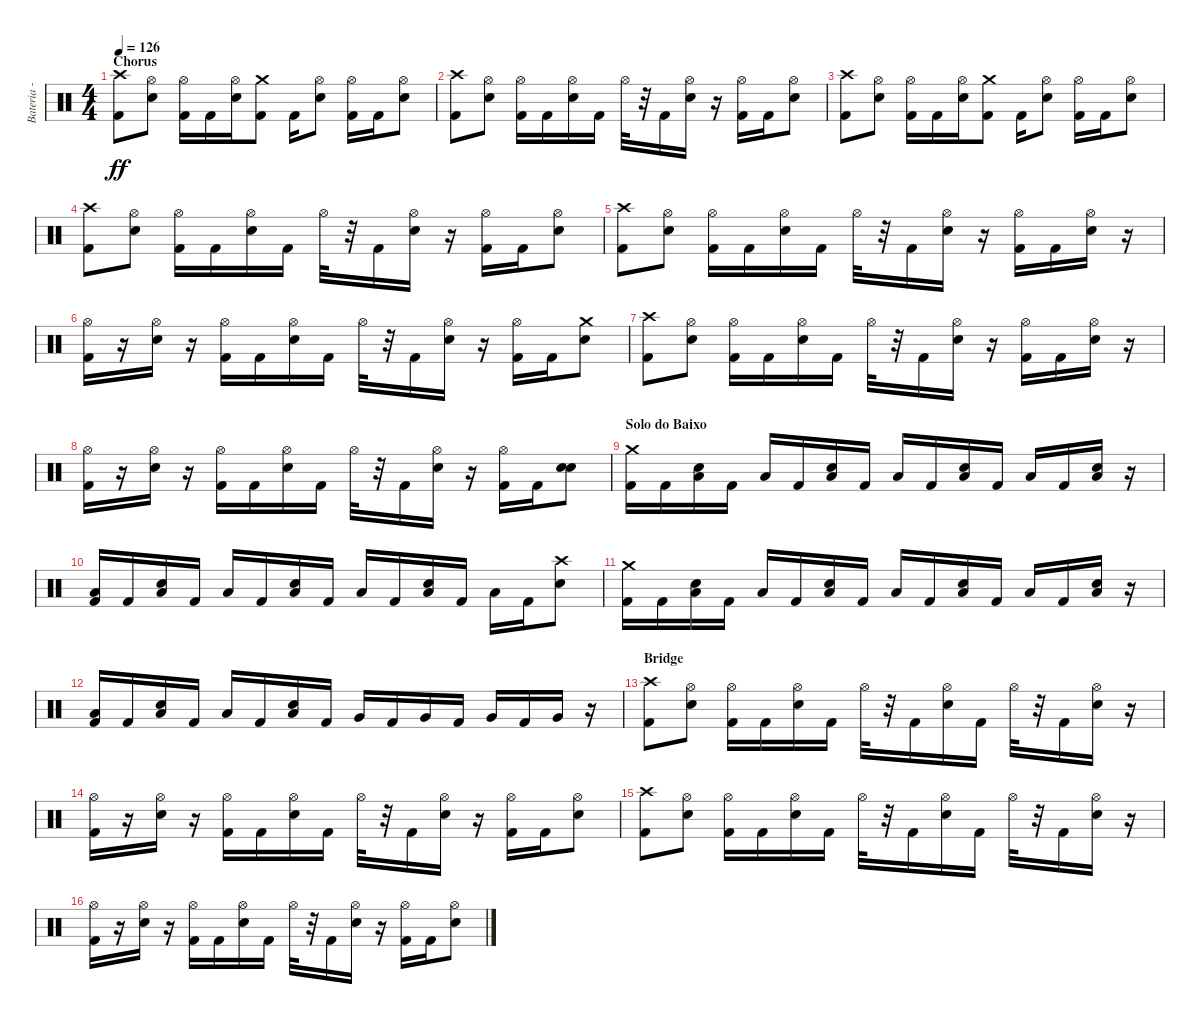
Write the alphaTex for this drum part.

\track ("Bateria - Larzon" "Bateria - ") {instrument percussion}
\staff {score}
\articulation defaults
\ts (4 4)
\section ("" "Chorus")
\tempo 126
\clef neutral
\ks c
("Kick (hit) 2" "Crash high (hit)").8{dy ff} ("Electric Snare (hit)" "Hi-Hat (open)").8 ("Kick (hit) 2" "Hi-Hat (open)").16 "Kick (hit) 2".16 ("Electric Snare (hit)" "Hi-Hat (open)").16 ("Kick (hit) 2" "Crash medium (hit)").8 "Kick (hit) 2".16 ("Electric Snare (hit)" "Hi-Hat (open)").8 ("Kick (hit) 2" "Hi-Hat (open)").16 "Kick (hit) 2".16 ("Electric Snare (hit)" "Hi-Hat (open)").8 |
("Kick (hit) 2" "Crash high (hit)").8 ("Electric Snare (hit)" "Hi-Hat (open)").8 ("Kick (hit) 2" "Hi-Hat (open)").16 "Kick (hit) 2".16 ("Electric Snare (hit)" "Hi-Hat (open)").16 "Kick (hit) 2".16 "Hi-Hat (open)".32 r.32 "Kick (hit) 2".16 ("Electric Snare (hit)" "Hi-Hat (open)").16 r.16 ("Kick (hit) 2" "Hi-Hat (open)").16 "Kick (hit) 2".16 ("Electric Snare (hit)" "Hi-Hat (open)").8 |
("Kick (hit) 2" "Crash high (hit)").8 ("Electric Snare (hit)" "Hi-Hat (open)").8 ("Kick (hit) 2" "Hi-Hat (open)").16 "Kick (hit) 2".16 ("Electric Snare (hit)" "Hi-Hat (open)").16 ("Kick (hit) 2" "Crash medium (hit)").8 "Kick (hit) 2".16 ("Electric Snare (hit)" "Hi-Hat (open)").8 ("Kick (hit) 2" "Hi-Hat (open)").16 "Kick (hit) 2".16 ("Electric Snare (hit)" "Hi-Hat (open)").8 |
("Kick (hit) 2" "Crash high (hit)").8 ("Electric Snare (hit)" "Hi-Hat (open)").8 ("Kick (hit) 2" "Hi-Hat (open)").16 "Kick (hit) 2".16 ("Electric Snare (hit)" "Hi-Hat (open)").16 "Kick (hit) 2".16 "Hi-Hat (open)".32 r.32 "Kick (hit) 2".16 ("Electric Snare (hit)" "Hi-Hat (open)").16 r.16 ("Kick (hit) 2" "Hi-Hat (open)").16 "Kick (hit) 2".16 ("Electric Snare (hit)" "Hi-Hat (open)").8 |
("Kick (hit) 2" "Crash high (hit)").8 ("Electric Snare (hit)" "Hi-Hat (open)").8 ("Kick (hit) 2" "Hi-Hat (open)").16 "Kick (hit) 2".16 ("Electric Snare (hit)" "Hi-Hat (open)").16 "Kick (hit) 2".16 "Hi-Hat (open)".32 r.32 "Kick (hit) 2".16 ("Electric Snare (hit)" "Hi-Hat (open)").16 r.16 ("Kick (hit) 2" "Hi-Hat (open)").16 "Kick (hit) 2".16 ("Electric Snare (hit)" "Hi-Hat (open)").16 r.16 |
("Kick (hit) 2" "Hi-Hat (open)").16 r.16 ("Electric Snare (hit)" "Hi-Hat (open)").16 r.16 ("Kick (hit) 2" "Hi-Hat (open)").16 "Kick (hit) 2".16 ("Electric Snare (hit)" "Hi-Hat (open)").16 "Kick (hit) 2".16 "Hi-Hat (open)".32 r.32 "Kick (hit) 2".16 ("Electric Snare (hit)" "Hi-Hat (open)").16 r.16 ("Kick (hit) 2" "Hi-Hat (open)").16 "Kick (hit) 2".16 ("Electric Snare (hit)" "Crash medium (hit)").8 |
("Kick (hit) 2" "Crash high (hit)").8 ("Electric Snare (hit)" "Hi-Hat (open)").8 ("Kick (hit) 2" "Hi-Hat (open)").16 "Kick (hit) 2".16 ("Electric Snare (hit)" "Hi-Hat (open)").16 "Kick (hit) 2".16 "Hi-Hat (open)".32 r.32 "Kick (hit) 2".16 ("Electric Snare (hit)" "Hi-Hat (open)").16 r.16 ("Kick (hit) 2" "Hi-Hat (open)").16 "Kick (hit) 2".16 ("Electric Snare (hit)" "Hi-Hat (open)").16 r.16 |
("Kick (hit) 2" "Hi-Hat (open)").16 r.16 ("Electric Snare (hit)" "Hi-Hat (open)").16 r.16 ("Kick (hit) 2" "Hi-Hat (open)").16 "Kick (hit) 2".16 ("Electric Snare (hit)" "Hi-Hat (open)").16 "Kick (hit) 2".16 "Hi-Hat (open)".32 r.32 "Kick (hit) 2".16 ("Electric Snare (hit)" "Hi-Hat (open)").16 r.16 ("Kick (hit) 2" "Hi-Hat (open)").16 "Kick (hit) 2".16 ("Electric Snare (hit)" "Electric Snare (hit)").8 |
\section ("" "Solo do Baixo")
("Kick (hit) 2" "Crash medium (hit)").16 "Kick (hit) 2".16 ("Electric Snare (hit)" "Low Tom (hit)").16 "Kick (hit) 2".16 "Low Tom (hit)".16 "Kick (hit) 2".16 ("Electric Snare (hit)" "Low Tom (hit)").16 "Kick (hit) 2".16 "Low Tom (hit)".16 "Kick (hit) 2".16 ("Electric Snare (hit)" "Low Tom (hit)").16 "Kick (hit) 2".16 "Low Tom (hit)".16 "Kick (hit) 2".16 ("Electric Snare (hit)" "Low Tom (hit)").16 r.16 |
("Kick (hit) 2" "Low Tom (hit)").16 "Kick (hit) 2".16 ("Electric Snare (hit)" "Low Tom (hit)").16 "Kick (hit) 2".16 "Low Tom (hit)".16 "Kick (hit) 2".16 ("Electric Snare (hit)" "Low Tom (hit)").16 "Kick (hit) 2".16 "Low Tom (hit)".16 "Kick (hit) 2".16 ("Electric Snare (hit)" "Low Tom (hit)").16 "Kick (hit) 2".16 "Low Tom (hit)".16 "Kick (hit) 2".16 ("Electric Snare (hit)" "Crash high (hit)").8 |
("Kick (hit) 2" "Crash medium (hit)").16 "Kick (hit) 2".16 ("Electric Snare (hit)" "Low Tom (hit)").16 "Kick (hit) 2".16 "Low Tom (hit)".16 "Kick (hit) 2".16 ("Electric Snare (hit)" "Low Tom (hit)").16 "Kick (hit) 2".16 "Low Tom (hit)".16 "Kick (hit) 2".16 ("Electric Snare (hit)" "Low Tom (hit)").16 "Kick (hit) 2".16 "Low Tom (hit)".16 "Kick (hit) 2".16 ("Electric Snare (hit)" "Low Tom (hit)").16 r.16 |
("Kick (hit) 2" "Low Tom (hit)").16 "Kick (hit) 2".16 ("Electric Snare (hit)" "Low Tom (hit)").16 "Kick (hit) 2".16 "Low Tom (hit)".16 "Kick (hit) 2".16 ("Electric Snare (hit)" "Low Tom (hit)").16 "Kick (hit) 2".16 "Very Low Tom (hit)".16 "Kick (hit) 2".16 "Very Low Tom (hit)".16 "Kick (hit) 2".16 "Very Low Tom (hit)".16 "Kick (hit) 2".16 "Very Low Tom (hit)".16 r.16 |
\section ("" "Bridge")
("Kick (hit) 2" "Crash high (hit)").8 ("Electric Snare (hit)" "Hi-Hat (open)").8 ("Kick (hit) 2" "Hi-Hat (open)").16 "Kick (hit) 2".16 ("Electric Snare (hit)" "Hi-Hat (open)").16 "Kick (hit) 2".16 "Hi-Hat (open)".32 r.32 "Kick (hit) 2".16 ("Electric Snare (hit)" "Hi-Hat (open)").16 "Kick (hit) 2".16 "Hi-Hat (open)".32 r.32 "Kick (hit) 2".16 ("Electric Snare (hit)" "Hi-Hat (open)").16 r.16 |
("Kick (hit) 2" "Hi-Hat (open)").16 r.16 ("Electric Snare (hit)" "Hi-Hat (open)").16 r.16 ("Kick (hit) 2" "Hi-Hat (open)").16 "Kick (hit) 2".16 ("Electric Snare (hit)" "Hi-Hat (open)").16 "Kick (hit) 2".16 "Hi-Hat (open)".32 r.32 "Kick (hit) 2".16 ("Electric Snare (hit)" "Hi-Hat (open)").16 r.16 ("Kick (hit) 2" "Hi-Hat (open)").16 "Kick (hit) 2".16 ("Hi-Hat (open)" "Electric Snare (hit)").8 |
("Kick (hit) 2" "Crash high (hit)").8 ("Electric Snare (hit)" "Hi-Hat (open)").8 ("Kick (hit) 2" "Hi-Hat (open)").16 "Kick (hit) 2".16 ("Electric Snare (hit)" "Hi-Hat (open)").16 "Kick (hit) 2".16 "Hi-Hat (open)".32 r.32 "Kick (hit) 2".16 ("Electric Snare (hit)" "Hi-Hat (open)").16 "Kick (hit) 2".16 "Hi-Hat (open)".32 r.32 "Kick (hit) 2".16 ("Electric Snare (hit)" "Hi-Hat (open)").16 r.16 |
("Kick (hit) 2" "Hi-Hat (open)").16 r.16 ("Electric Snare (hit)" "Hi-Hat (open)").16 r.16 ("Kick (hit) 2" "Hi-Hat (open)").16 "Kick (hit) 2".16 ("Electric Snare (hit)" "Hi-Hat (open)").16 "Kick (hit) 2".16 "Hi-Hat (open)".32 r.32 "Kick (hit) 2".16 ("Electric Snare (hit)" "Hi-Hat (open)").16 r.16 ("Kick (hit) 2" "Hi-Hat (open)").16 "Kick (hit) 2".16 ("Hi-Hat (open)" "Electric Snare (hit)").8
